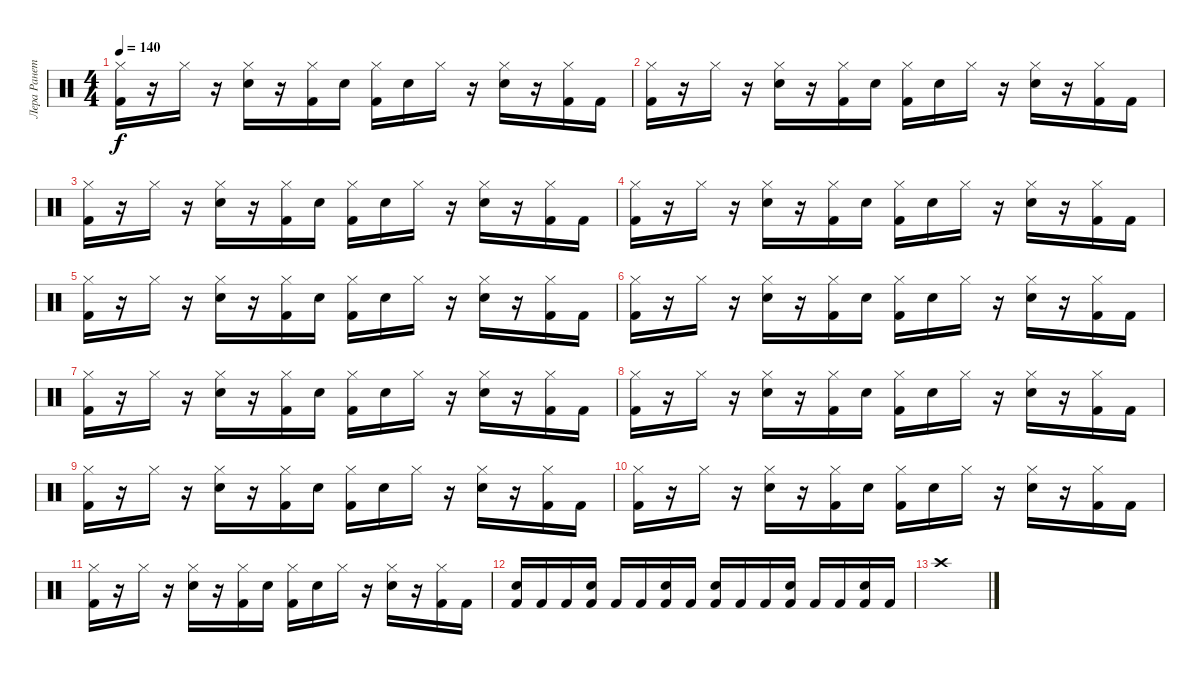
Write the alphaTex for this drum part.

\track ("Лера Ранетка" "Лера Ранет") {instrument percussion}
\staff {score}
\articulation defaults
\ts (4 4)
\tempo 140
\clef neutral
\ks c
("Hi-Hat (closed)" "Kick (hit) 2").16{dy f} r.16 "Hi-Hat (closed)".16 r.16 ("Hi-Hat (closed)" "Snare (hit) 2").16 r.16 ("Hi-Hat (closed)" "Kick (hit) 2").16 "Snare (hit) 2".16 ("Hi-Hat (closed)" "Kick (hit) 2").16 "Snare (hit) 2".16 "Hi-Hat (closed)".16 r.16 ("Hi-Hat (closed)" "Snare (hit) 2").16 r.16 ("Hi-Hat (closed)" "Kick (hit) 2").16 "Kick (hit) 2".16 |
("Hi-Hat (closed)" "Kick (hit) 2").16 r.16 "Hi-Hat (closed)".16 r.16 ("Hi-Hat (closed)" "Snare (hit) 2").16 r.16 ("Hi-Hat (closed)" "Kick (hit) 2").16 "Snare (hit) 2".16 ("Hi-Hat (closed)" "Kick (hit) 2").16 "Snare (hit) 2".16 "Hi-Hat (closed)".16 r.16 ("Hi-Hat (closed)" "Snare (hit) 2").16 r.16 ("Hi-Hat (closed)" "Kick (hit) 2").16 "Kick (hit) 2".16 |
("Hi-Hat (closed)" "Kick (hit) 2").16 r.16 "Hi-Hat (closed)".16 r.16 ("Hi-Hat (closed)" "Snare (hit) 2").16 r.16 ("Hi-Hat (closed)" "Kick (hit) 2").16 "Snare (hit) 2".16 ("Hi-Hat (closed)" "Kick (hit) 2").16 "Snare (hit) 2".16 "Hi-Hat (closed)".16 r.16 ("Hi-Hat (closed)" "Snare (hit) 2").16 r.16 ("Hi-Hat (closed)" "Kick (hit) 2").16 "Kick (hit) 2".16 |
("Hi-Hat (closed)" "Kick (hit) 2").16 r.16 "Hi-Hat (closed)".16 r.16 ("Hi-Hat (closed)" "Snare (hit) 2").16 r.16 ("Hi-Hat (closed)" "Kick (hit) 2").16 "Snare (hit) 2".16 ("Hi-Hat (closed)" "Kick (hit) 2").16 "Snare (hit) 2".16 "Hi-Hat (closed)".16 r.16 ("Hi-Hat (closed)" "Snare (hit) 2").16 r.16 ("Hi-Hat (closed)" "Kick (hit) 2").16 "Kick (hit) 2".16 |
("Hi-Hat (closed)" "Kick (hit) 2").16 r.16 "Hi-Hat (closed)".16 r.16 ("Hi-Hat (closed)" "Snare (hit) 2").16 r.16 ("Hi-Hat (closed)" "Kick (hit) 2").16 "Snare (hit) 2".16 ("Hi-Hat (closed)" "Kick (hit) 2").16 "Snare (hit) 2".16 "Hi-Hat (closed)".16 r.16 ("Hi-Hat (closed)" "Snare (hit) 2").16 r.16 ("Hi-Hat (closed)" "Kick (hit) 2").16 "Kick (hit) 2".16 |
("Hi-Hat (closed)" "Kick (hit) 2").16 r.16 "Hi-Hat (closed)".16 r.16 ("Hi-Hat (closed)" "Snare (hit) 2").16 r.16 ("Hi-Hat (closed)" "Kick (hit) 2").16 "Snare (hit) 2".16 ("Hi-Hat (closed)" "Kick (hit) 2").16 "Snare (hit) 2".16 "Hi-Hat (closed)".16 r.16 ("Hi-Hat (closed)" "Snare (hit) 2").16 r.16 ("Hi-Hat (closed)" "Kick (hit) 2").16 "Kick (hit) 2".16 |
("Hi-Hat (closed)" "Kick (hit) 2").16 r.16 "Hi-Hat (closed)".16 r.16 ("Hi-Hat (closed)" "Snare (hit) 2").16 r.16 ("Hi-Hat (closed)" "Kick (hit) 2").16 "Snare (hit) 2".16 ("Hi-Hat (closed)" "Kick (hit) 2").16 "Snare (hit) 2".16 "Hi-Hat (closed)".16 r.16 ("Hi-Hat (closed)" "Snare (hit) 2").16 r.16 ("Hi-Hat (closed)" "Kick (hit) 2").16 "Kick (hit) 2".16 |
("Hi-Hat (closed)" "Kick (hit) 2").16 r.16 "Hi-Hat (closed)".16 r.16 ("Hi-Hat (closed)" "Snare (hit) 2").16 r.16 ("Hi-Hat (closed)" "Kick (hit) 2").16 "Snare (hit) 2".16 ("Hi-Hat (closed)" "Kick (hit) 2").16 "Snare (hit) 2".16 "Hi-Hat (closed)".16 r.16 ("Hi-Hat (closed)" "Snare (hit) 2").16 r.16 ("Hi-Hat (closed)" "Kick (hit) 2").16 "Kick (hit) 2".16 |
("Hi-Hat (closed)" "Kick (hit) 2").16 r.16 "Hi-Hat (closed)".16 r.16 ("Hi-Hat (closed)" "Snare (hit) 2").16 r.16 ("Hi-Hat (closed)" "Kick (hit) 2").16 "Snare (hit) 2".16 ("Hi-Hat (closed)" "Kick (hit) 2").16 "Snare (hit) 2".16 "Hi-Hat (closed)".16 r.16 ("Hi-Hat (closed)" "Snare (hit) 2").16 r.16 ("Hi-Hat (closed)" "Kick (hit) 2").16 "Kick (hit) 2".16 |
("Hi-Hat (closed)" "Kick (hit) 2").16 r.16 "Hi-Hat (closed)".16 r.16 ("Hi-Hat (closed)" "Snare (hit) 2").16 r.16 ("Hi-Hat (closed)" "Kick (hit) 2").16 "Snare (hit) 2".16 ("Hi-Hat (closed)" "Kick (hit) 2").16 "Snare (hit) 2".16 "Hi-Hat (closed)".16 r.16 ("Hi-Hat (closed)" "Snare (hit) 2").16 r.16 ("Hi-Hat (closed)" "Kick (hit) 2").16 "Kick (hit) 2".16 |
("Hi-Hat (closed)" "Kick (hit) 2").16 r.16 "Hi-Hat (closed)".16 r.16 ("Hi-Hat (closed)" "Snare (hit) 2").16 r.16 ("Hi-Hat (closed)" "Kick (hit) 2").16 "Snare (hit) 2".16 ("Hi-Hat (closed)" "Kick (hit) 2").16 "Snare (hit) 2".16 "Hi-Hat (closed)".16 r.16 ("Hi-Hat (closed)" "Snare (hit) 2").16 r.16 ("Hi-Hat (closed)" "Kick (hit) 2").16 "Kick (hit) 2".16 |
("Snare (hit) 2" "Kick (hit) 2").16 "Kick (hit) 2".16 "Kick (hit) 2".16 ("Snare (hit) 2" "Kick (hit) 2").16 "Kick (hit) 2".16 "Kick (hit) 2".16 ("Snare (hit) 2" "Kick (hit) 2").16 "Kick (hit) 2".16 ("Snare (hit) 2" "Kick (hit) 2").16 "Kick (hit) 2".16 "Kick (hit) 2".16 ("Snare (hit) 2" "Kick (hit) 2").16 "Kick (hit) 2".16 "Kick (hit) 2".16 ("Snare (hit) 2" "Kick (hit) 2").16 "Kick (hit) 2".16 |
"Crash high (hit)".1
